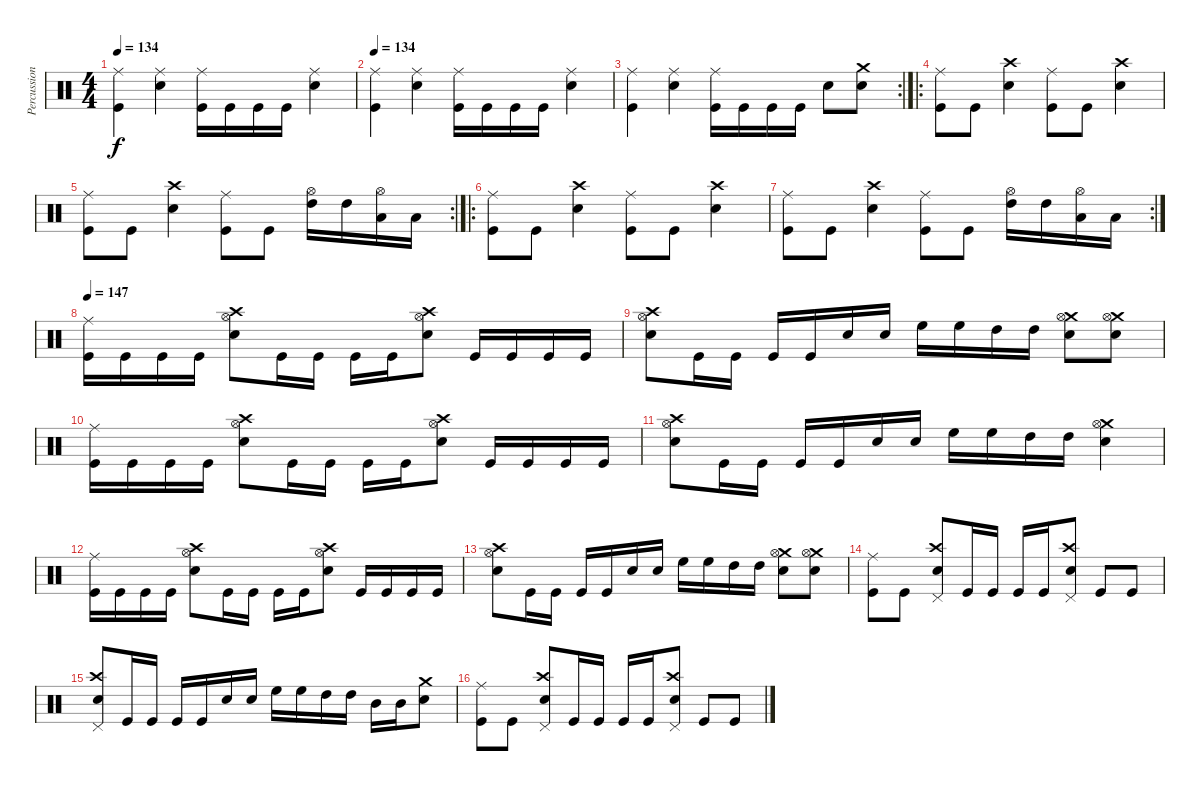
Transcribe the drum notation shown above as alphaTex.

\track ("Percussion" "Percussion") {instrument percussion}
\staff {score}
\articulation defaults
\ts (4 4)
\tempo 134
\clef neutral
\ks c
("Ride (middle)" "Kick (hit)").4{dy f} ("Ride (middle)" "Snare (hit) 2").4 ("Ride (middle)" "Kick (hit)").16 "Kick (hit)".16 "Kick (hit)".16 "Kick (hit)".16 ("Ride (middle)" "Snare (hit) 2").4 |
\tempo 134
("Ride (middle)" "Kick (hit)").4 ("Ride (middle)" "Snare (hit) 2").4 ("Ride (middle)" "Kick (hit)").16 "Kick (hit)".16 "Kick (hit)".16 "Kick (hit)".16 ("Ride (middle)" "Snare (hit) 2").4 |
\rc 2
("Ride (middle)" "Kick (hit)").4 ("Ride (middle)" "Snare (hit) 2").4 ("Ride (middle)" "Kick (hit)").16 "Kick (hit)".16 "Kick (hit)".16 "Kick (hit)".16 "Snare (hit) 2".8 ("Crash medium (hit)" "Snare (hit) 2").8 |
\ro
("Ride (middle)" "Kick (hit)").8 "Kick (hit)".8 ("Crash high (hit)" "Snare (hit) 2").4 ("Ride (middle)" "Kick (hit)").8 "Kick (hit)".8 ("Crash high (hit)" "Snare (hit) 2").4 |
\rc 2
("Ride (middle)" "Kick (hit)").8 "Kick (hit)".8 ("Crash high (hit)" "Snare (hit) 2").4 ("Ride (middle)" "Kick (hit)").8 "Kick (hit)".8 ("Hi-Hat (open)" "High Tom (hit)").16 "High Tom (hit)".16 ("Hi-Hat (open)" "Low Tom (hit)").16 "Low Tom (hit)".16 |
\ro
("Ride (middle)" "Kick (hit)").8 "Kick (hit)".8 ("Crash high (hit)" "Snare (hit) 2").4 ("Ride (middle)" "Kick (hit)").8 "Kick (hit)".8 ("Crash high (hit)" "Snare (hit) 2").4 |
\rc 2
("Ride (middle)" "Kick (hit)").8 "Kick (hit)".8 ("Crash high (hit)" "Snare (hit) 2").4 ("Ride (middle)" "Kick (hit)").8 "Kick (hit)".8 ("Hi-Hat (open)" "High Tom (hit)").16 "High Tom (hit)".16 ("Hi-Hat (open)" "Low Tom (hit)").16 "Low Tom (hit)".16 |
\tempo 147
("Ride (middle)" "Kick (hit)").16 "Kick (hit)".16 "Kick (hit)".16 "Kick (hit)".16 ("Crash high (hit)" "Hi-Hat (open)" "Snare (hit) 2").8 "Kick (hit)".16 "Kick (hit)".16 "Kick (hit)".16 "Kick (hit)".16 ("Crash high (hit)" "Hi-Hat (open)" "Snare (hit) 2").8 "Kick (hit)".16 "Kick (hit)".16 "Kick (hit)".16 "Kick (hit)".16 |
("Crash high (hit)" "Hi-Hat (open)" "Snare (hit) 2").8 "Kick (hit)".16 "Kick (hit)".16 "Kick (hit)".16 "Kick (hit)".16 "Snare (hit) 2".16 "Snare (hit) 2".16 "High Floor Tom (hit)".16 "High Floor Tom (hit)".16 "High Tom (hit)".16 "High Tom (hit)".16 ("Crash medium (hit)" "Hi-Hat (open)" "Snare (hit) 2").8 ("Crash medium (hit)" "Hi-Hat (open)" "Snare (hit) 2").8 |
("Ride (middle)" "Kick (hit)").16 "Kick (hit)".16 "Kick (hit)".16 "Kick (hit)".16 ("Crash high (hit)" "Hi-Hat (open)" "Snare (hit) 2").8 "Kick (hit)".16 "Kick (hit)".16 "Kick (hit)".16 "Kick (hit)".16 ("Crash high (hit)" "Hi-Hat (open)" "Snare (hit) 2").8 "Kick (hit)".16 "Kick (hit)".16 "Kick (hit)".16 "Kick (hit)".16 |
("Crash high (hit)" "Hi-Hat (open)" "Snare (hit) 2").8 "Kick (hit)".16 "Kick (hit)".16 "Kick (hit)".16 "Kick (hit)".16 "Snare (hit) 2".16 "Snare (hit) 2".16 "High Floor Tom (hit)".16 "High Floor Tom (hit)".16 "High Tom (hit)".16 "High Tom (hit)".16 ("Crash medium (hit)" "Hi-Hat (open)" "Snare (hit) 2").4 |
("Ride (middle)" "Kick (hit)").16 "Kick (hit)".16 "Kick (hit)".16 "Kick (hit)".16 ("Crash high (hit)" "Hi-Hat (open)" "Snare (hit) 2").8 "Kick (hit)".16 "Kick (hit)".16 "Kick (hit)".16 "Kick (hit)".16 ("Crash high (hit)" "Hi-Hat (open)" "Snare (hit) 2").8 "Kick (hit)".16 "Kick (hit)".16 "Kick (hit)".16 "Kick (hit)".16 |
("Crash high (hit)" "Hi-Hat (open)" "Snare (hit) 2").8 "Kick (hit)".16 "Kick (hit)".16 "Kick (hit)".16 "Kick (hit)".16 "Snare (hit) 2".16 "Snare (hit) 2".16 "High Floor Tom (hit)".16 "High Floor Tom (hit)".16 "High Tom (hit)".16 "High Tom (hit)".16 ("Crash medium (hit)" "Hi-Hat (open)" "Snare (hit) 2").8 ("Crash medium (hit)" "Hi-Hat (open)" "Snare (hit) 2").8 |
("Ride (middle)" "Kick (hit)").8 "Kick (hit)".8 ("Crash high (hit)" "Pedal Hi-Hat (hit)" "Snare (hit) 2").8 "Kick (hit)".16 "Kick (hit)".16 "Kick (hit)".16 "Kick (hit)".16 ("Crash high (hit)" "Pedal Hi-Hat (hit)" "Snare (hit) 2").8 "Kick (hit)".8 "Kick (hit)".8 |
("Crash high (hit)" "Pedal Hi-Hat (hit)" "Snare (hit) 2").8 "Kick (hit)".16 "Kick (hit)".16 "Kick (hit)".16 "Kick (hit)".16 "Snare (hit) 2".16 "Snare (hit) 2".16 "High Floor Tom (hit)".16 "High Floor Tom (hit)".16 "High Tom (hit)".16 "High Tom (hit)".16 "Mid Tom (hit)".16 "Mid Tom (hit)".16 ("Crash medium (hit)" "Snare (hit) 2").8 |
("Ride (middle)" "Kick (hit)").8 "Kick (hit)".8 ("Crash high (hit)" "Pedal Hi-Hat (hit)" "Snare (hit) 2").8 "Kick (hit)".16 "Kick (hit)".16 "Kick (hit)".16 "Kick (hit)".16 ("Crash high (hit)" "Pedal Hi-Hat (hit)" "Snare (hit) 2").8 "Kick (hit)".8 "Kick (hit)".8
